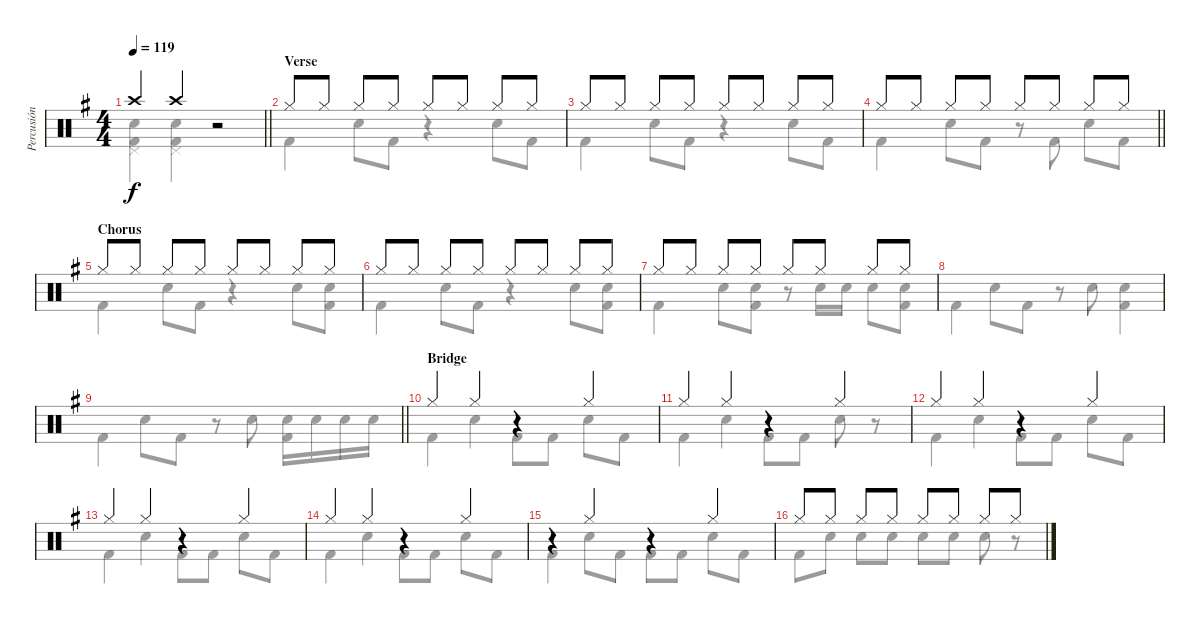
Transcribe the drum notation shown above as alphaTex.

\track ("Percusión" "Percusión") {instrument percussion}
\staff {score}
\articulation defaults
\voice
\ts (4 4)
\tempo 119
\clef neutral
\barLineRight lightlight
\ks g "Crash high (hit)".4{dy f} "Crash high (hit)".4
r.2 |
\section ("" "Verse")
"Hi-Hat (closed)".8 "Hi-Hat (closed)".8 "Hi-Hat (closed)".8 "Hi-Hat (closed)".8 "Hi-Hat (closed)".8 "Hi-Hat (closed)".8 "Hi-Hat (closed)".8 "Hi-Hat (closed)".8 |
"Hi-Hat (closed)".8 "Hi-Hat (closed)".8 "Hi-Hat (closed)".8 "Hi-Hat (closed)".8 "Hi-Hat (closed)".8 "Hi-Hat (closed)".8 "Hi-Hat (closed)".8 "Hi-Hat (closed)".8 |
\barLineRight lightlight "Hi-Hat (closed)".8 "Hi-Hat (closed)".8 "Hi-Hat (closed)".8 "Hi-Hat (closed)".8 "Hi-Hat (closed)".8 "Hi-Hat (closed)".8 "Hi-Hat (closed)".8 "Hi-Hat (closed)".8
|
\section ("" "Chorus")
"Hi-Hat (closed)".8 "Hi-Hat (closed)".8 "Hi-Hat (closed)".8 "Hi-Hat (closed)".8 "Hi-Hat (closed)".8 "Hi-Hat (closed)".8 "Hi-Hat (closed)".8 "Hi-Hat (closed)".8 |
"Hi-Hat (closed)".8 "Hi-Hat (closed)".8 "Hi-Hat (closed)".8 "Hi-Hat (closed)".8 "Hi-Hat (closed)".8 "Hi-Hat (closed)".8 "Hi-Hat (closed)".8 "Hi-Hat (closed)".8 |
"Hi-Hat (closed)".8 "Hi-Hat (closed)".8 "Hi-Hat (closed)".8 "Hi-Hat (closed)".8 "Hi-Hat (closed)".8 "Hi-Hat (closed)".8 "Hi-Hat (closed)".8 "Hi-Hat (closed)".8 |
|
\barLineRight lightlight
|
\section ("" "Bridge")
"Hi-Hat (closed)".4 "Hi-Hat (closed)".4 r.4 "Hi-Hat (closed)".4 |
"Hi-Hat (closed)".4 "Hi-Hat (closed)".4 r.4 "Hi-Hat (closed)".4 |
"Hi-Hat (closed)".4 "Hi-Hat (closed)".4 r.4 "Hi-Hat (closed)".4 |
"Hi-Hat (closed)".4 "Hi-Hat (closed)".4 r.4 "Hi-Hat (closed)".4 |
"Hi-Hat (closed)".4 "Hi-Hat (closed)".4 r.4 "Hi-Hat (closed)".4 |
r.4 "Hi-Hat (closed)".4 r.4 "Hi-Hat (closed)".4 |
"Hi-Hat (closed)".8 "Hi-Hat (closed)".8 "Hi-Hat (closed)".8 "Hi-Hat (closed)".8 "Hi-Hat (closed)".8 "Hi-Hat (closed)".8 "Hi-Hat (closed)".8 "Hi-Hat (closed)".8
\voice
\clef neutral
\ottava regular
\simile none
\barLineRight lightlight
\ks g
("Electric Snare (hit)" "Pedal Hi-Hat (hit)" "Kick (hit) 2").4{dy f} ("Electric Snare (hit)" "Pedal Hi-Hat (hit)" "Kick (hit) 2").4 r.2 |
"Kick (hit) 2".4 "Electric Snare (hit)".8 "Kick (hit) 2".8 r.4 "Electric Snare (hit)".8 "Kick (hit) 2".8 |
"Kick (hit) 2".4 "Electric Snare (hit)".8 "Kick (hit) 2".8 r.4 "Electric Snare (hit)".8 "Kick (hit) 2".8 |
\barLineRight lightlight "Kick (hit) 2".4 "Electric Snare (hit)".8 "Kick (hit) 2".8
r.8 "Kick (hit) 2".8 "Electric Snare (hit)".8 "Kick (hit) 2".8 |
"Kick (hit) 2".4 "Electric Snare (hit)".8 "Kick (hit) 2".8 r.4 "Electric Snare (hit)".8 ("Electric Snare (hit)" "Kick (hit) 2").8 |
"Kick (hit) 2".4 "Electric Snare (hit)".8 "Kick (hit) 2".8 r.4 "Electric Snare (hit)".8 ("Electric Snare (hit)" "Kick (hit) 2").8 |
"Kick (hit) 2".4 "Electric Snare (hit)".8 ("Electric Snare (hit)" "Kick (hit) 2").8 r.8 "Electric Snare (hit)".16 "Electric Snare (hit)".16 "Electric Snare (hit)".8 ("Electric Snare (hit)" "Kick (hit) 2").8 |
"Kick (hit) 2".4 "Electric Snare (hit)".8 "Kick (hit) 2".8 r.8 "Electric Snare (hit)".8 ("Electric Snare (hit)" "Kick (hit) 2").4 |
\barLineRight lightlight "Kick (hit) 2".4 "Electric Snare (hit)".8 "Kick (hit) 2".8
r.8 "Electric Snare (hit)".8 ("Electric Snare (hit)" "Kick (hit) 2").16 "Electric Snare (hit)".16 "Electric Snare (hit)".16 "Electric Snare (hit)".16 |
"Kick (hit) 2".4 "Electric Snare (hit)".4 "Kick (hit) 2".8 "Kick (hit) 2".8 "Electric Snare (hit)".8 "Kick (hit) 2".8 |
"Kick (hit) 2".4 "Electric Snare (hit)".4 "Kick (hit) 2".8 "Kick (hit) 2".8 "Electric Snare (hit)".8 r.8 |
"Kick (hit) 2".4 "Electric Snare (hit)".4 "Kick (hit) 2".8 "Kick (hit) 2".8 "Electric Snare (hit)".8 "Kick (hit) 2".8 |
"Kick (hit) 2".4 "Electric Snare (hit)".4 "Kick (hit) 2".8 "Kick (hit) 2".8 "Electric Snare (hit)".8 "Kick (hit) 2".8 |
"Kick (hit) 2".4 "Electric Snare (hit)".4 "Kick (hit) 2".8 "Kick (hit) 2".8 "Electric Snare (hit)".8 "Kick (hit) 2".8 |
"Kick (hit) 2".4 "Electric Snare (hit)".8 "Kick (hit) 2".8 "Kick (hit) 2".8 "Kick (hit) 2".8 "Electric Snare (hit)".8 "Kick (hit) 2".8 |
"Kick (hit) 2".8 "Electric Snare (hit)".8 "Electric Snare (hit)".8 "Electric Snare (hit)".8 "Electric Snare (hit)".8 "Electric Snare (hit)".8 "Electric Snare (hit)".8 r.8
